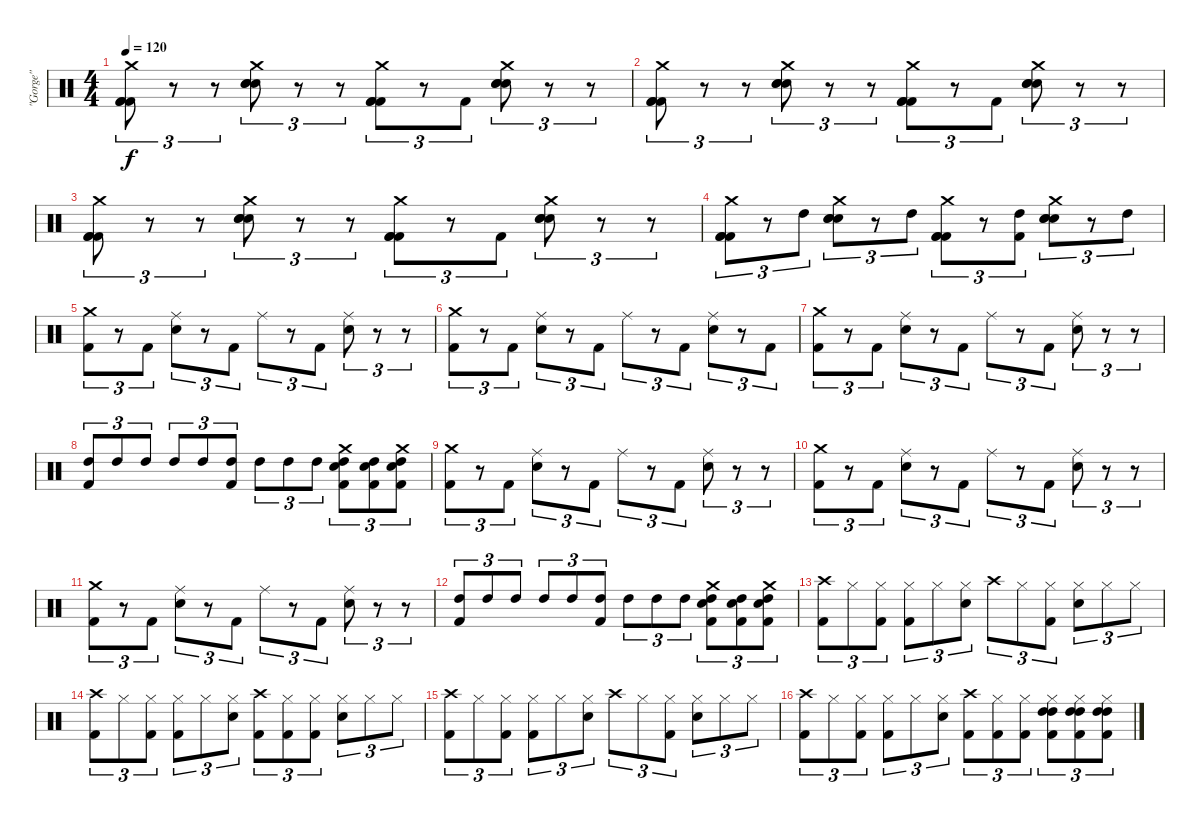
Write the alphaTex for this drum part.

\track ("\"Gorge\"" "\"Gorge\"") {instrument percussion}
\staff {score}
\articulation defaults
\ts (4 4)
\tempo 120
\clef neutral
\ks c
("Crash medium (hit)" "Kick (hit) 2" "Kick (hit) 2" "Kick (hit) 2").8{tu (3 2) dy f} r.8{tu (3 2)} r.8{tu (3 2)} ("Crash medium (hit)" "Electric Snare (hit)" "Electric Snare (hit)" "Electric Snare (hit)").8{tu (3 2)} r.8{tu (3 2)} r.8{tu (3 2)} ("Crash medium (hit)" "Kick (hit) 2" "Kick (hit) 2" "Kick (hit) 2").8{tu (3 2)} r.8{tu (3 2)} "Kick (hit) 2".8{tu (3 2)} ("Crash medium (hit)" "Electric Snare (hit)" "Electric Snare (hit)" "Electric Snare (hit)").8{tu (3 2)} r.8{tu (3 2)} r.8{tu (3 2)} |
("Crash medium (hit)" "Kick (hit) 2" "Kick (hit) 2" "Kick (hit) 2").8{tu (3 2)} r.8{tu (3 2)} r.8{tu (3 2)} ("Crash medium (hit)" "Electric Snare (hit)" "Electric Snare (hit)" "Electric Snare (hit)").8{tu (3 2)} r.8{tu (3 2)} r.8{tu (3 2)} ("Crash medium (hit)" "Kick (hit) 2" "Kick (hit) 2" "Kick (hit) 2").8{tu (3 2)} r.8{tu (3 2)} "Kick (hit) 2".8{tu (3 2)} ("Crash medium (hit)" "Electric Snare (hit)" "Electric Snare (hit)" "Electric Snare (hit)").8{tu (3 2)} r.8{tu (3 2)} r.8{tu (3 2)} |
("Crash medium (hit)" "Kick (hit) 2" "Kick (hit) 2" "Kick (hit) 2").8{tu (3 2)} r.8{tu (3 2)} r.8{tu (3 2)} ("Crash medium (hit)" "Electric Snare (hit)" "Electric Snare (hit)" "Electric Snare (hit)").8{tu (3 2)} r.8{tu (3 2)} r.8{tu (3 2)} ("Crash medium (hit)" "Kick (hit) 2" "Kick (hit) 2" "Kick (hit) 2").8{tu (3 2)} r.8{tu (3 2)} "Kick (hit) 2".8{tu (3 2)} ("Crash medium (hit)" "Electric Snare (hit)" "Electric Snare (hit)" "Electric Snare (hit)").8{tu (3 2)} r.8{tu (3 2)} r.8{tu (3 2)} |
("Crash medium (hit)" "Kick (hit) 2" "Kick (hit) 2" "Kick (hit) 2").8{tu (3 2)} r.8{tu (3 2)} "High Tom (hit)".8{tu (3 2)} ("Crash medium (hit)" "Electric Snare (hit)" "Electric Snare (hit)" "Electric Snare (hit)").8{tu (3 2)} r.8{tu (3 2)} "High Tom (hit)".8{tu (3 2)} ("Crash medium (hit)" "Kick (hit) 2" "Kick (hit) 2" "Kick (hit) 2").8{tu (3 2)} r.8{tu (3 2)} ("High Tom (hit)" "Kick (hit) 2").8{tu (3 2)} ("Crash medium (hit)" "Electric Snare (hit)" "Electric Snare (hit)" "Electric Snare (hit)").8{tu (3 2)} r.8{tu (3 2)} "High Tom (hit)".8{tu (3 2)} |
("Crash medium (hit)" "Kick (hit) 2").8{tu (3 2)} r.8{tu (3 2)} "Kick (hit) 2".8{tu (3 2)} ("Ride (middle)" "Electric Snare (hit)").8{tu (3 2)} r.8{tu (3 2)} "Kick (hit) 2".8{tu (3 2)} "Ride (middle)".8{tu (3 2)} r.8{tu (3 2)} "Kick (hit) 2".8{tu (3 2)} ("Ride (middle)" "Electric Snare (hit)").8{tu (3 2)} r.8{tu (3 2)} r.8{tu (3 2)} |
("Crash medium (hit)" "Kick (hit) 2").8{tu (3 2)} r.8{tu (3 2)} "Kick (hit) 2".8{tu (3 2)} ("Ride (middle)" "Electric Snare (hit)").8{tu (3 2)} r.8{tu (3 2)} "Kick (hit) 2".8{tu (3 2)} "Ride (middle)".8{tu (3 2)} r.8{tu (3 2)} "Kick (hit) 2".8{tu (3 2)} ("Ride (middle)" "Electric Snare (hit)").8{tu (3 2)} r.8{tu (3 2)} "Kick (hit) 2".8{tu (3 2)} |
("Crash medium (hit)" "Kick (hit) 2").8{tu (3 2)} r.8{tu (3 2)} "Kick (hit) 2".8{tu (3 2)} ("Ride (middle)" "Electric Snare (hit)").8{tu (3 2)} r.8{tu (3 2)} "Kick (hit) 2".8{tu (3 2)} "Ride (middle)".8{tu (3 2)} r.8{tu (3 2)} "Kick (hit) 2".8{tu (3 2)} ("Ride (middle)" "Electric Snare (hit)").8{tu (3 2)} r.8{tu (3 2)} r.8{tu (3 2)} |
("Kick (hit) 2" "High Tom (hit)").8{tu (3 2)} "High Tom (hit)".8{tu (3 2)} "High Tom (hit)".8{tu (3 2)} "High Tom (hit)".8{tu (3 2)} "High Tom (hit)".8{tu (3 2)} ("Kick (hit) 2" "High Tom (hit)").8{tu (3 2)} "High Tom (hit)".8{tu (3 2)} "High Tom (hit)".8{tu (3 2)} "High Tom (hit)".8{tu (3 2)} ("Crash medium (hit)" "Electric Snare (hit)" "Kick (hit) 2" "High Tom (hit)").8{tu (3 2)} ("Electric Snare (hit)" "Kick (hit) 2" "High Tom (hit)").8{tu (3 2)} ("Crash medium (hit)" "Electric Snare (hit)" "Kick (hit) 2" "High Tom (hit)").8{tu (3 2)} |
("Crash medium (hit)" "Kick (hit) 2").8{tu (3 2)} r.8{tu (3 2)} "Kick (hit) 2".8{tu (3 2)} ("Ride (middle)" "Electric Snare (hit)").8{tu (3 2)} r.8{tu (3 2)} "Kick (hit) 2".8{tu (3 2)} "Ride (middle)".8{tu (3 2)} r.8{tu (3 2)} "Kick (hit) 2".8{tu (3 2)} ("Ride (middle)" "Electric Snare (hit)").8{tu (3 2)} r.8{tu (3 2)} r.8{tu (3 2)} |
("Crash medium (hit)" "Kick (hit) 2").8{tu (3 2)} r.8{tu (3 2)} "Kick (hit) 2".8{tu (3 2)} ("Ride (middle)" "Electric Snare (hit)").8{tu (3 2)} r.8{tu (3 2)} "Kick (hit) 2".8{tu (3 2)} "Ride (middle)".8{tu (3 2)} r.8{tu (3 2)} "Kick (hit) 2".8{tu (3 2)} ("Ride (middle)" "Electric Snare (hit)").8{tu (3 2)} r.8{tu (3 2)} r.8{tu (3 2)} |
("Crash medium (hit)" "Kick (hit) 2").8{tu (3 2)} r.8{tu (3 2)} "Kick (hit) 2".8{tu (3 2)} ("Ride (middle)" "Electric Snare (hit)").8{tu (3 2)} r.8{tu (3 2)} "Kick (hit) 2".8{tu (3 2)} "Ride (middle)".8{tu (3 2)} r.8{tu (3 2)} "Kick (hit) 2".8{tu (3 2)} ("Ride (middle)" "Electric Snare (hit)").8{tu (3 2)} r.8{tu (3 2)} r.8{tu (3 2)} |
("Kick (hit) 2" "High Tom (hit)").8{tu (3 2)} "High Tom (hit)".8{tu (3 2)} "High Tom (hit)".8{tu (3 2)} "High Tom (hit)".8{tu (3 2)} "High Tom (hit)".8{tu (3 2)} ("Kick (hit) 2" "High Tom (hit)").8{tu (3 2)} "High Tom (hit)".8{tu (3 2)} "High Tom (hit)".8{tu (3 2)} "High Tom (hit)".8{tu (3 2)} ("Crash medium (hit)" "Electric Snare (hit)" "Kick (hit) 2" "High Tom (hit)").8{tu (3 2)} ("Electric Snare (hit)" "Kick (hit) 2" "High Tom (hit)").8{tu (3 2)} ("Crash medium (hit)" "Electric Snare (hit)" "Kick (hit) 2" "High Tom (hit)").8{tu (3 2)} |
("Crash high (hit)" "Kick (hit) 2").8{tu (3 2)} "Hi-Hat (closed)".8{tu (3 2)} ("Hi-Hat (closed)" "Kick (hit) 2").8{tu (3 2)} ("Hi-Hat (closed)" "Kick (hit) 2").8{tu (3 2)} "Hi-Hat (closed)".8{tu (3 2)} ("Hi-Hat (closed)" "Electric Snare (hit)").8{tu (3 2)} "Crash high (hit)".8{tu (3 2)} "Hi-Hat (closed)".8{tu (3 2)} ("Hi-Hat (closed)" "Kick (hit) 2").8{tu (3 2)} ("Hi-Hat (closed)" "Electric Snare (hit)").8{tu (3 2)} "Hi-Hat (closed)".8{tu (3 2)} "Hi-Hat (closed)".8{tu (3 2)} |
("Crash high (hit)" "Kick (hit) 2").8{tu (3 2)} "Hi-Hat (closed)".8{tu (3 2)} ("Hi-Hat (closed)" "Kick (hit) 2").8{tu (3 2)} ("Hi-Hat (closed)" "Kick (hit) 2").8{tu (3 2)} "Hi-Hat (closed)".8{tu (3 2)} ("Hi-Hat (closed)" "Electric Snare (hit)").8{tu (3 2)} ("Crash high (hit)" "Kick (hit) 2").8{tu (3 2)} ("Hi-Hat (closed)" "Kick (hit) 2").8{tu (3 2)} ("Hi-Hat (closed)" "Kick (hit) 2").8{tu (3 2)} ("Hi-Hat (closed)" "Electric Snare (hit)").8{tu (3 2)} "Hi-Hat (closed)".8{tu (3 2)} "Hi-Hat (closed)".8{tu (3 2)} |
("Crash high (hit)" "Kick (hit) 2").8{tu (3 2)} "Hi-Hat (closed)".8{tu (3 2)} ("Hi-Hat (closed)" "Kick (hit) 2").8{tu (3 2)} ("Hi-Hat (closed)" "Kick (hit) 2").8{tu (3 2)} "Hi-Hat (closed)".8{tu (3 2)} ("Hi-Hat (closed)" "Electric Snare (hit)").8{tu (3 2)} "Crash high (hit)".8{tu (3 2)} "Hi-Hat (closed)".8{tu (3 2)} ("Hi-Hat (closed)" "Kick (hit) 2").8{tu (3 2)} ("Hi-Hat (closed)" "Electric Snare (hit)").8{tu (3 2)} "Hi-Hat (closed)".8{tu (3 2)} "Hi-Hat (closed)".8{tu (3 2)} |
("Crash high (hit)" "Kick (hit) 2").8{tu (3 2)} "Hi-Hat (closed)".8{tu (3 2)} ("Hi-Hat (closed)" "Kick (hit) 2").8{tu (3 2)} ("Hi-Hat (closed)" "Kick (hit) 2").8{tu (3 2)} "Hi-Hat (closed)".8{tu (3 2)} ("Hi-Hat (closed)" "Electric Snare (hit)").8{tu (3 2)} ("Crash high (hit)" "Kick (hit) 2").8{tu (3 2)} ("Hi-Hat (closed)" "Kick (hit) 2").8{tu (3 2)} ("Hi-Hat (closed)" "Kick (hit) 2").8{tu (3 2)} ("Hi-Hat (closed)" "High Tom (hit)" "High Tom (hit)" "Kick (hit) 2").8{tu (3 2)} ("Hi-Hat (closed)" "High Tom (hit)" "High Tom (hit)" "Kick (hit) 2").8{tu (3 2)} ("Hi-Hat (closed)" "High Tom (hit)" "High Tom (hit)" "Kick (hit) 2").8{tu (3 2)}
